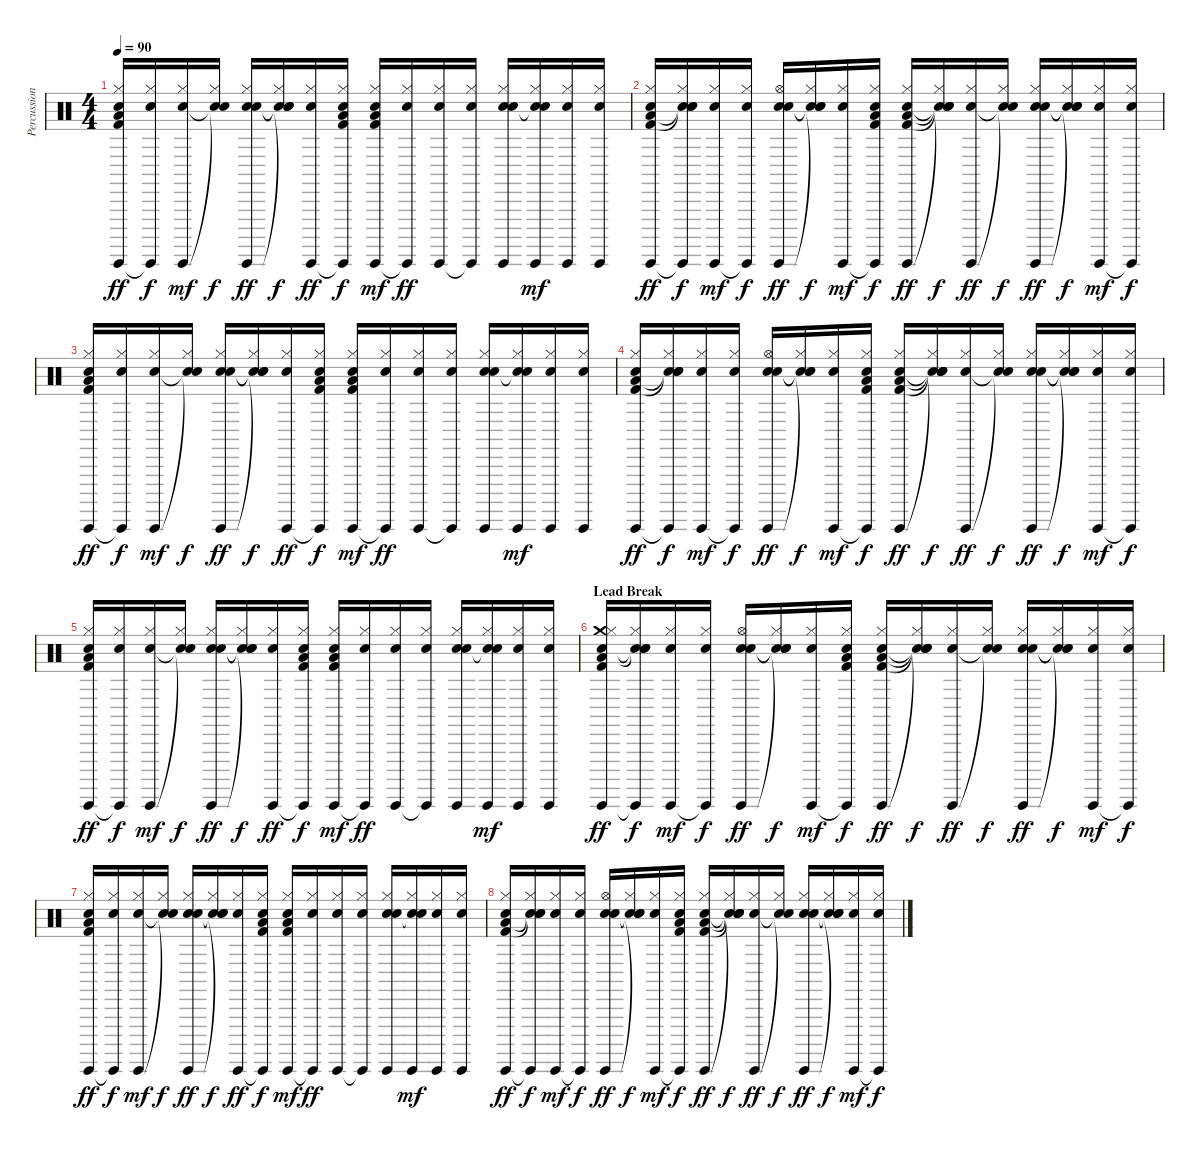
\track ("Percussion" "Percussion") {instrument percussion}
\staff {score}
\articulation defaults
\ts (4 4)
\tempo 90
\clef neutral
\ks c
("Guiro (hit)" "Hi-Hat (closed)" "Hand Clap (hit)" "Low Floor Tom (hit)" "Kick (hit) 2").16{dy ff} ("Guiro (hit)"{t} "Hi-Hat (closed)" "Hand Clap (hit)").16{dy f} ("Guiro (hit)" "Hi-Hat (closed)" "Hand Clap (hit)").16{dy mf} ("Snare (hit)"{t} "Hi-Hat (closed)" "Snare (hit)"{t}).16{dy f} ("Guiro (hit)" "Hi-Hat (closed)" "Hand Clap (hit)" "Snare (hit) 2").16{dy ff} ("Snare (hit)"{t} "Hi-Hat (closed)" "Snare (hit)"{t} "Snare (hit)"{t}).16{dy f} ("Guiro (hit)" "Hi-Hat (closed)" "Hand Clap (hit)").16{dy ff} ("Guiro (hit)"{t} "Hi-Hat (closed)" "Hand Clap (hit)" "Low Floor Tom (hit)" "Kick (hit) 2").16{dy f} ("Guiro (hit)" "Hi-Hat (closed)" "Hand Clap (hit)" "Low Floor Tom (hit)" "Kick (hit) 2").16{dy mf} ("Guiro (hit)"{t} "Hi-Hat (closed)" "Hand Clap (hit)").16{dy ff} ("Guiro (hit)" "Hi-Hat (closed)" "Hand Clap (hit)").16 ("Guiro (hit)"{t} "Hi-Hat (closed)" "Hand Clap (hit)").16 ("Guiro (hit)" "Hi-Hat (closed)" "Hand Clap (hit)" "Snare (hit) 2").16 ("Guiro (hit)" "Hi-Hat (closed)" "Hand Clap (hit)" "Snare (hit)"{t}).16{dy mf} ("Guiro (hit)" "Hi-Hat (closed)" "Hand Clap (hit)").16 ("Guiro (hit)" "Hi-Hat (closed)" "Hand Clap (hit)").16 |
("Guiro (hit)" "Hi-Hat (closed)" "Hand Clap (hit)" "Low Floor Tom (hit)" "Kick (hit) 2").16{dy ff} ("Guiro (hit)"{t} "Hi-Hat (closed)" "Hand Clap (hit)" "Snare (hit)"{t} "Snare (hit)"{t}).16{dy f} ("Guiro (hit)" "Hi-Hat (closed)" "Hand Clap (hit)").16{dy mf} ("Guiro (hit)"{t} "Hi-Hat (closed)" "Hand Clap (hit)").16{dy f} ("Guiro (hit)" "Hi-Hat (open)" "Hand Clap (hit)" "Snare (hit) 2").16{dy ff} ("Snare (hit)"{t} "Hi-Hat (closed)" "Snare (hit)"{t} "Snare (hit)"{t}).16{dy f} ("Guiro (hit)" "Hi-Hat (closed)" "Hand Clap (hit)").16{dy mf} ("Guiro (hit)"{t} "Hi-Hat (closed)" "Hand Clap (hit)" "Low Floor Tom (hit)" "Kick (hit) 2").16{dy f} ("Guiro (hit)" "Hi-Hat (closed)" "Hand Clap (hit)" "Low Floor Tom (hit)" "Kick (hit) 2").16{dy ff} ("Snare (hit)"{t} "Hi-Hat (closed)" "Snare (hit)"{t} "Snare (hit)"{t} "Snare (hit)"{t}).16{dy f} ("Guiro (hit)" "Hi-Hat (closed)" "Hand Clap (hit)").16{dy ff} ("Snare (hit)"{t} "Hi-Hat (closed)" "Snare (hit)"{t}).16{dy f} ("Guiro (hit)" "Hi-Hat (closed)" "Hand Clap (hit)" "Snare (hit) 2").16{dy ff} ("Snare (hit)"{t} "Hi-Hat (closed)" "Snare (hit)"{t} "Snare (hit)"{t}).16{dy f} ("Guiro (hit)" "Hi-Hat (closed)" "Hand Clap (hit)").16{dy mf} ("Guiro (hit)"{t} "Hi-Hat (closed)" "Hand Clap (hit)").16{dy f} |
("Guiro (hit)" "Hi-Hat (closed)" "Hand Clap (hit)" "Low Floor Tom (hit)" "Kick (hit) 2").16{dy ff} ("Guiro (hit)"{t} "Hi-Hat (closed)" "Hand Clap (hit)").16{dy f} ("Guiro (hit)" "Hi-Hat (closed)" "Hand Clap (hit)").16{dy mf} ("Snare (hit)"{t} "Hi-Hat (closed)" "Snare (hit)"{t}).16{dy f} ("Guiro (hit)" "Hi-Hat (closed)" "Hand Clap (hit)" "Snare (hit) 2").16{dy ff} ("Snare (hit)"{t} "Hi-Hat (closed)" "Snare (hit)"{t} "Snare (hit)"{t}).16{dy f} ("Guiro (hit)" "Hi-Hat (closed)" "Hand Clap (hit)").16{dy ff} ("Guiro (hit)"{t} "Hi-Hat (closed)" "Hand Clap (hit)" "Low Floor Tom (hit)" "Kick (hit) 2").16{dy f} ("Guiro (hit)" "Hi-Hat (closed)" "Hand Clap (hit)" "Low Floor Tom (hit)" "Kick (hit) 2").16{dy mf} ("Guiro (hit)"{t} "Hi-Hat (closed)" "Hand Clap (hit)").16{dy ff} ("Guiro (hit)" "Hi-Hat (closed)" "Hand Clap (hit)").16 ("Guiro (hit)"{t} "Hi-Hat (closed)" "Hand Clap (hit)").16 ("Guiro (hit)" "Hi-Hat (closed)" "Hand Clap (hit)" "Snare (hit) 2").16 ("Guiro (hit)" "Hi-Hat (closed)" "Hand Clap (hit)" "Snare (hit)"{t}).16{dy mf} ("Guiro (hit)" "Hi-Hat (closed)" "Hand Clap (hit)").16 ("Guiro (hit)" "Hi-Hat (closed)" "Hand Clap (hit)").16 |
("Guiro (hit)" "Hi-Hat (closed)" "Hand Clap (hit)" "Low Floor Tom (hit)" "Kick (hit) 2").16{dy ff} ("Guiro (hit)"{t} "Hi-Hat (closed)" "Hand Clap (hit)" "Snare (hit)"{t} "Snare (hit)"{t}).16{dy f} ("Guiro (hit)" "Hi-Hat (closed)" "Hand Clap (hit)").16{dy mf} ("Guiro (hit)"{t} "Hi-Hat (closed)" "Hand Clap (hit)").16{dy f} ("Guiro (hit)" "Hi-Hat (open)" "Hand Clap (hit)" "Snare (hit) 2").16{dy ff} ("Snare (hit)"{t} "Hi-Hat (closed)" "Snare (hit)"{t} "Snare (hit)"{t}).16{dy f} ("Guiro (hit)" "Hi-Hat (closed)" "Hand Clap (hit)").16{dy mf} ("Guiro (hit)"{t} "Hi-Hat (closed)" "Hand Clap (hit)" "Low Floor Tom (hit)" "Kick (hit) 2").16{dy f} ("Guiro (hit)" "Hi-Hat (closed)" "Hand Clap (hit)" "Low Floor Tom (hit)" "Kick (hit) 2").16{dy ff} ("Snare (hit)"{t} "Hi-Hat (closed)" "Snare (hit)"{t} "Snare (hit)"{t} "Snare (hit)"{t}).16{dy f} ("Guiro (hit)" "Hi-Hat (closed)" "Hand Clap (hit)").16{dy ff} ("Snare (hit)"{t} "Hi-Hat (closed)" "Snare (hit)"{t}).16{dy f} ("Guiro (hit)" "Hi-Hat (closed)" "Hand Clap (hit)" "Snare (hit) 2").16{dy ff} ("Snare (hit)"{t} "Hi-Hat (closed)" "Snare (hit)"{t} "Snare (hit)"{t}).16{dy f} ("Guiro (hit)" "Hi-Hat (closed)" "Hand Clap (hit)").16{dy mf} ("Guiro (hit)"{t} "Hi-Hat (closed)" "Hand Clap (hit)").16{dy f} |
("Guiro (hit)" "Hi-Hat (closed)" "Hand Clap (hit)" "Low Floor Tom (hit)" "Kick (hit) 2").16{dy ff} ("Guiro (hit)"{t} "Hi-Hat (closed)" "Hand Clap (hit)").16{dy f} ("Guiro (hit)" "Hi-Hat (closed)" "Hand Clap (hit)").16{dy mf} ("Snare (hit)"{t} "Hi-Hat (closed)" "Snare (hit)"{t}).16{dy f} ("Guiro (hit)" "Hi-Hat (closed)" "Hand Clap (hit)" "Snare (hit) 2").16{dy ff} ("Snare (hit)"{t} "Hi-Hat (closed)" "Snare (hit)"{t} "Snare (hit)"{t}).16{dy f} ("Guiro (hit)" "Hi-Hat (closed)" "Hand Clap (hit)").16{dy ff} ("Guiro (hit)"{t} "Hi-Hat (closed)" "Hand Clap (hit)" "Low Floor Tom (hit)" "Kick (hit) 2").16{dy f} ("Guiro (hit)" "Hi-Hat (closed)" "Hand Clap (hit)" "Low Floor Tom (hit)" "Kick (hit) 2").16{dy mf} ("Guiro (hit)"{t} "Hi-Hat (closed)" "Hand Clap (hit)").16{dy ff} ("Guiro (hit)" "Hi-Hat (closed)" "Hand Clap (hit)").16 ("Guiro (hit)"{t} "Hi-Hat (closed)" "Hand Clap (hit)").16 ("Guiro (hit)" "Hi-Hat (closed)" "Hand Clap (hit)" "Snare (hit) 2").16 ("Guiro (hit)" "Hi-Hat (closed)" "Hand Clap (hit)" "Snare (hit)"{t}).16{dy mf} ("Guiro (hit)" "Hi-Hat (closed)" "Hand Clap (hit)").16 ("Guiro (hit)" "Hi-Hat (closed)" "Hand Clap (hit)").16 |
\section ("" "Lead Break")
("Guiro (hit)" "Crash medium (hit)" "Hi-Hat (closed)" "Hand Clap (hit)" "Low Floor Tom (hit)" "Kick (hit) 2").16{dy ff} ("Guiro (hit)"{t} "Hi-Hat (closed)" "Hand Clap (hit)" "Snare (hit)"{t} "Snare (hit)"{t}).16{dy f} ("Guiro (hit)" "Hi-Hat (closed)" "Hand Clap (hit)").16{dy mf} ("Guiro (hit)"{t} "Hi-Hat (closed)" "Hand Clap (hit)").16{dy f} ("Guiro (hit)" "Hi-Hat (open)" "Hand Clap (hit)" "Snare (hit) 2").16{dy ff} ("Snare (hit)"{t} "Hi-Hat (closed)" "Snare (hit)"{t} "Snare (hit)"{t}).16{dy f} ("Guiro (hit)" "Hi-Hat (closed)" "Hand Clap (hit)").16{dy mf} ("Guiro (hit)"{t} "Hi-Hat (closed)" "Hand Clap (hit)" "Low Floor Tom (hit)" "Kick (hit) 2").16{dy f} ("Guiro (hit)" "Hi-Hat (closed)" "Hand Clap (hit)" "Low Floor Tom (hit)" "Kick (hit) 2").16{dy ff} ("Snare (hit)"{t} "Hi-Hat (closed)" "Snare (hit)"{t} "Snare (hit)"{t} "Snare (hit)"{t}).16{dy f} ("Guiro (hit)" "Hi-Hat (closed)" "Hand Clap (hit)").16{dy ff} ("Snare (hit)"{t} "Hi-Hat (closed)" "Snare (hit)"{t}).16{dy f} ("Guiro (hit)" "Hi-Hat (closed)" "Hand Clap (hit)" "Snare (hit) 2").16{dy ff} ("Snare (hit)"{t} "Hi-Hat (closed)" "Snare (hit)"{t} "Snare (hit)"{t}).16{dy f} ("Guiro (hit)" "Hi-Hat (closed)" "Hand Clap (hit)").16{dy mf} ("Guiro (hit)"{t} "Hi-Hat (closed)" "Hand Clap (hit)").16{dy f} |
("Guiro (hit)" "Hi-Hat (closed)" "Hand Clap (hit)" "Low Floor Tom (hit)" "Kick (hit) 2").16{dy ff} ("Guiro (hit)"{t} "Hi-Hat (closed)" "Hand Clap (hit)").16{dy f} ("Guiro (hit)" "Hi-Hat (closed)" "Hand Clap (hit)").16{dy mf} ("Snare (hit)"{t} "Hi-Hat (closed)" "Snare (hit)"{t}).16{dy f} ("Guiro (hit)" "Hi-Hat (closed)" "Hand Clap (hit)" "Snare (hit) 2").16{dy ff} ("Snare (hit)"{t} "Hi-Hat (closed)" "Snare (hit)"{t} "Snare (hit)"{t}).16{dy f} ("Guiro (hit)" "Hi-Hat (closed)" "Hand Clap (hit)").16{dy ff} ("Guiro (hit)"{t} "Hi-Hat (closed)" "Hand Clap (hit)" "Low Floor Tom (hit)" "Kick (hit) 2").16{dy f} ("Guiro (hit)" "Hi-Hat (closed)" "Hand Clap (hit)" "Low Floor Tom (hit)" "Kick (hit) 2").16{dy mf} ("Guiro (hit)"{t} "Hi-Hat (closed)" "Hand Clap (hit)").16{dy ff} ("Guiro (hit)" "Hi-Hat (closed)" "Hand Clap (hit)").16 ("Guiro (hit)"{t} "Hi-Hat (closed)" "Hand Clap (hit)").16 ("Guiro (hit)" "Hi-Hat (closed)" "Hand Clap (hit)" "Snare (hit) 2").16 ("Guiro (hit)" "Hi-Hat (closed)" "Hand Clap (hit)" "Snare (hit)"{t}).16{dy mf} ("Guiro (hit)" "Hi-Hat (closed)" "Hand Clap (hit)").16 ("Guiro (hit)" "Hi-Hat (closed)" "Hand Clap (hit)").16 |
("Guiro (hit)" "Hi-Hat (closed)" "Hand Clap (hit)" "Low Floor Tom (hit)" "Kick (hit) 2").16{dy ff} ("Guiro (hit)"{t} "Hi-Hat (closed)" "Hand Clap (hit)" "Snare (hit)"{t} "Snare (hit)"{t}).16{dy f} ("Guiro (hit)" "Hi-Hat (closed)" "Hand Clap (hit)").16{dy mf} ("Guiro (hit)"{t} "Hi-Hat (closed)" "Hand Clap (hit)").16{dy f} ("Guiro (hit)" "Hi-Hat (open)" "Hand Clap (hit)" "Snare (hit) 2").16{dy ff} ("Snare (hit)"{t} "Hi-Hat (closed)" "Snare (hit)"{t} "Snare (hit)"{t}).16{dy f} ("Guiro (hit)" "Hi-Hat (closed)" "Hand Clap (hit)").16{dy mf} ("Guiro (hit)"{t} "Hi-Hat (closed)" "Hand Clap (hit)" "Low Floor Tom (hit)" "Kick (hit) 2").16{dy f} ("Guiro (hit)" "Hi-Hat (closed)" "Hand Clap (hit)" "Low Floor Tom (hit)" "Kick (hit) 2").16{dy ff} ("Snare (hit)"{t} "Hi-Hat (closed)" "Snare (hit)"{t} "Snare (hit)"{t} "Snare (hit)"{t}).16{dy f} ("Guiro (hit)" "Hi-Hat (closed)" "Hand Clap (hit)").16{dy ff} ("Snare (hit)"{t} "Hi-Hat (closed)" "Snare (hit)"{t}).16{dy f} ("Guiro (hit)" "Hi-Hat (closed)" "Hand Clap (hit)" "Snare (hit) 2").16{dy ff} ("Snare (hit)"{t} "Hi-Hat (closed)" "Snare (hit)"{t} "Snare (hit)"{t}).16{dy f} ("Guiro (hit)" "Hi-Hat (closed)" "Hand Clap (hit)").16{dy mf} ("Guiro (hit)"{t} "Hi-Hat (closed)" "Hand Clap (hit)").16{dy f}
